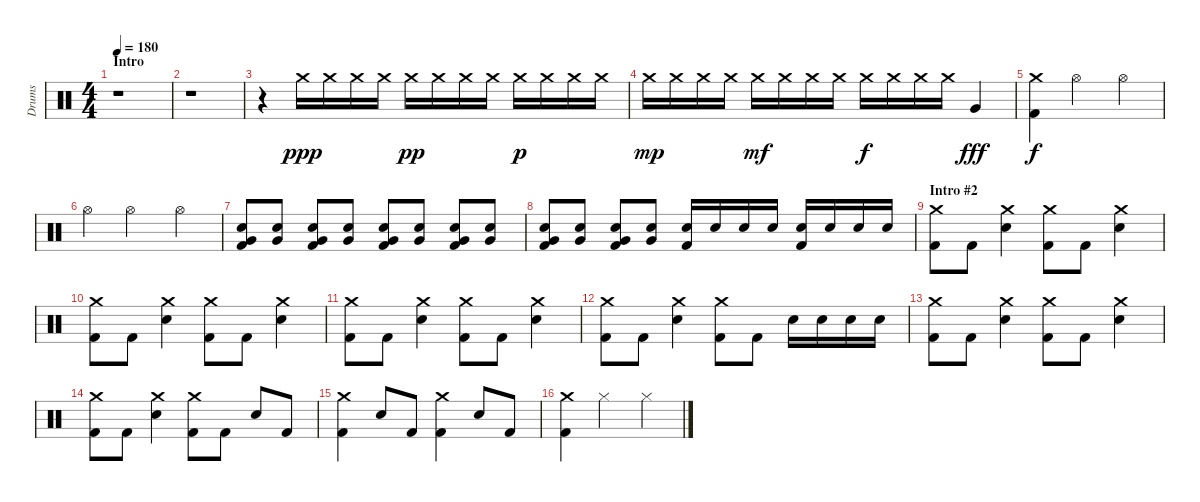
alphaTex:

\track ("Drums" "Drums") {instrument percussion}
\staff {score}
\articulation defaults
\ts (4 4)
\section ("" "Intro")
\tempo 180
\clef neutral
\ks c
r.1{dy ppp} |
r.1 |
r.4 "Crash medium (hit)".16 "Crash medium (hit)".16 "Crash medium (hit)".16 "Crash medium (hit)".16 "Crash medium (hit)".16{dy pp} "Crash medium (hit)".16 "Crash medium (hit)".16 "Crash medium (hit)".16 "Crash medium (hit)".16{dy p} "Crash medium (hit)".16 "Crash medium (hit)".16 "Crash medium (hit)".16 |
"Crash medium (hit)".16{dy mp} "Crash medium (hit)".16 "Crash medium (hit)".16 "Crash medium (hit)".16 "Crash medium (hit)".16{dy mf} "Crash medium (hit)".16 "Crash medium (hit)".16 "Crash medium (hit)".16 "Crash medium (hit)".16{dy f} "Crash medium (hit)".16 "Crash medium (hit)".16 "Crash medium (hit)".16 "Very Low Tom (hit)".4{dy fff} |
("Crash medium (hit)" "Kick (hit) 2").4{dy f} "Hi-Hat (open)".2 "Hi-Hat (open)".4 |
"Hi-Hat (open)".4 "Hi-Hat (open)".2 "Hi-Hat (open)".4 |
("Very Low Tom (hit)" "Electric Snare (hit)" "Kick (hit) 2").8 ("Very Low Tom (hit)" "Electric Snare (hit)").8 ("Very Low Tom (hit)" "Electric Snare (hit)" "Kick (hit) 2").8 ("Very Low Tom (hit)" "Electric Snare (hit)").8 ("Very Low Tom (hit)" "Electric Snare (hit)" "Kick (hit) 2").8 ("Very Low Tom (hit)" "Electric Snare (hit)").8 ("Very Low Tom (hit)" "Electric Snare (hit)" "Kick (hit) 2").8 ("Very Low Tom (hit)" "Electric Snare (hit)").8 |
("Very Low Tom (hit)" "Electric Snare (hit)" "Kick (hit) 2").8 ("Very Low Tom (hit)" "Electric Snare (hit)").8 ("Very Low Tom (hit)" "Electric Snare (hit)" "Kick (hit) 2").8 ("Very Low Tom (hit)" "Electric Snare (hit)").8 ("Electric Snare (hit)" "Kick (hit) 2").16 "Electric Snare (hit)".16 "Electric Snare (hit)".16 "Electric Snare (hit)".16 ("Electric Snare (hit)" "Kick (hit) 2").16 "Electric Snare (hit)".16 "Electric Snare (hit)".16 "Electric Snare (hit)".16 |
\section ("" "Intro #2")
("Crash medium (hit)" "Kick (hit) 2").8 "Kick (hit) 2".8 ("Crash medium (hit)" "Electric Snare (hit)").4 ("Crash medium (hit)" "Kick (hit) 2").8 "Kick (hit) 2".8 ("Crash medium (hit)" "Electric Snare (hit)").4 |
("Crash medium (hit)" "Kick (hit) 2").8 "Kick (hit) 2".8 ("Crash medium (hit)" "Electric Snare (hit)").4 ("Crash medium (hit)" "Kick (hit) 2").8 "Kick (hit) 2".8 ("Crash medium (hit)" "Electric Snare (hit)").4 |
("Crash medium (hit)" "Kick (hit) 2").8 "Kick (hit) 2".8 ("Crash medium (hit)" "Electric Snare (hit)").4 ("Crash medium (hit)" "Kick (hit) 2").8 "Kick (hit) 2".8 ("Crash medium (hit)" "Electric Snare (hit)").4 |
("Crash medium (hit)" "Kick (hit) 2").8 "Kick (hit) 2".8 ("Crash medium (hit)" "Electric Snare (hit)").4 ("Crash medium (hit)" "Kick (hit) 2").8 "Kick (hit) 2".8 "Electric Snare (hit)".16 "Electric Snare (hit)".16 "Electric Snare (hit)".16 "Electric Snare (hit)".16 |
("Crash medium (hit)" "Kick (hit) 2").8 "Kick (hit) 2".8 ("Crash medium (hit)" "Electric Snare (hit)").4 ("Crash medium (hit)" "Kick (hit) 2").8 "Kick (hit) 2".8 ("Crash medium (hit)" "Electric Snare (hit)").4 |
("Crash medium (hit)" "Kick (hit) 2").8 "Kick (hit) 2".8 ("Crash medium (hit)" "Electric Snare (hit)").4 ("Crash medium (hit)" "Kick (hit) 2").8 "Kick (hit) 2".8 "Electric Snare (hit)".8 "Kick (hit) 2".8 |
("Crash medium (hit)" "Kick (hit) 2").4 "Electric Snare (hit)".8 "Kick (hit) 2".8 ("Crash medium (hit)" "Kick (hit) 2").4 "Electric Snare (hit)".8 "Kick (hit) 2".8 |
("Crash medium (hit)" "Kick (hit) 2").4 "Hi-Hat (closed)".2 "Hi-Hat (closed)".4
